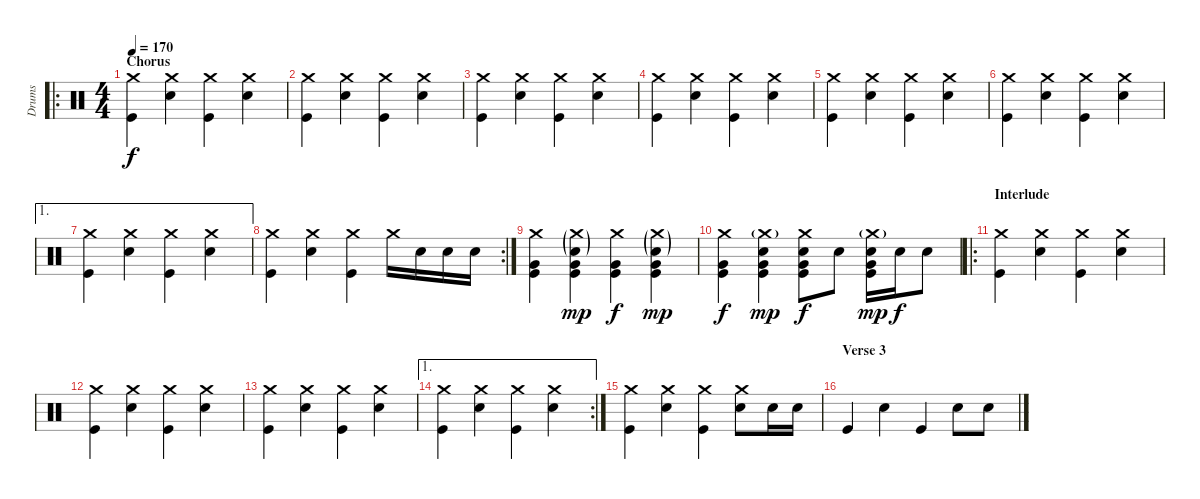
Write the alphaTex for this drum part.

\track ("Drums" "Drums") {instrument percussion}
\staff {score}
\articulation defaults
\ro
\ts (4 4)
\section ("" "Chorus")
\tempo 170
\clef neutral
\ks c
("Crash medium (hit)" "Kick (hit)").4{dy f} ("Crash medium (hit)" "Snare (hit) 2").4 ("Crash medium (hit)" "Kick (hit)").4 ("Crash medium (hit)" "Snare (hit) 2").4 |
("Crash medium (hit)" "Kick (hit)").4 ("Crash medium (hit)" "Snare (hit) 2").4 ("Crash medium (hit)" "Kick (hit)").4 ("Crash medium (hit)" "Snare (hit) 2").4 |
("Crash medium (hit)" "Kick (hit)").4 ("Crash medium (hit)" "Snare (hit) 2").4 ("Crash medium (hit)" "Kick (hit)").4 ("Crash medium (hit)" "Snare (hit) 2").4 |
("Crash medium (hit)" "Kick (hit)").4 ("Crash medium (hit)" "Snare (hit) 2").4 ("Crash medium (hit)" "Kick (hit)").4 ("Crash medium (hit)" "Snare (hit) 2").4 |
("Crash medium (hit)" "Kick (hit)").4 ("Crash medium (hit)" "Snare (hit) 2").4 ("Crash medium (hit)" "Kick (hit)").4 ("Crash medium (hit)" "Snare (hit) 2").4 |
("Crash medium (hit)" "Kick (hit)").4 ("Crash medium (hit)" "Snare (hit) 2").4 ("Crash medium (hit)" "Kick (hit)").4 ("Crash medium (hit)" "Snare (hit) 2").4 |
\ae 1
("Crash medium (hit)" "Kick (hit)").4 ("Crash medium (hit)" "Snare (hit) 2").4 ("Crash medium (hit)" "Kick (hit)").4 ("Crash medium (hit)" "Snare (hit) 2").4 |
\rc 2
("Crash medium (hit)" "Kick (hit)").4 ("Crash medium (hit)" "Snare (hit) 2").4 ("Crash medium (hit)" "Kick (hit)").4 "Crash medium (hit)".16 "Snare (hit) 2".16 "Snare (hit) 2".16 "Snare (hit) 2".16 |
("Crash medium (hit)" "Very Low Tom (hit)" "Kick (hit)").4 ("Crash medium (hit)"{g} "Very Low Tom (hit)" "Snare (hit) 2"{g} "Kick (hit)").4{dy mp} ("Crash medium (hit)" "Very Low Tom (hit)" "Kick (hit)").4{dy f} ("Crash medium (hit)"{g} "Very Low Tom (hit)" "Snare (hit) 2"{g} "Kick (hit)").4{dy mp} |
("Crash medium (hit)" "Very Low Tom (hit)" "Kick (hit)").4{dy f} ("Crash medium (hit)"{g} "Very Low Tom (hit)" "Snare (hit) 2" "Kick (hit)").4{dy mp} ("Crash medium (hit)" "Very Low Tom (hit)" "Snare (hit) 2" "Kick (hit)").8{dy f} "Snare (hit) 2".8 ("Crash medium (hit)"{g} "Very Low Tom (hit)" "Snare (hit) 2" "Kick (hit)").16{dy mp} "Snare (hit) 2".16{dy f} "Snare (hit) 2".8 |
\ro
\section ("" "Interlude")
("Crash medium (hit)" "Kick (hit)").4 ("Crash medium (hit)" "Snare (hit) 2").4 ("Crash medium (hit)" "Kick (hit)").4 ("Crash medium (hit)" "Snare (hit) 2").4 |
("Crash medium (hit)" "Kick (hit)").4 ("Crash medium (hit)" "Snare (hit) 2").4 ("Crash medium (hit)" "Kick (hit)").4 ("Crash medium (hit)" "Snare (hit) 2").4 |
("Crash medium (hit)" "Kick (hit)").4 ("Crash medium (hit)" "Snare (hit) 2").4 ("Crash medium (hit)" "Kick (hit)").4 ("Crash medium (hit)" "Snare (hit) 2").4 |
\ae 1
\rc 2
("Crash medium (hit)" "Kick (hit)").4 ("Crash medium (hit)" "Snare (hit) 2").4 ("Crash medium (hit)" "Kick (hit)").4 ("Crash medium (hit)" "Snare (hit) 2").4 |
("Crash medium (hit)" "Kick (hit)").4 ("Crash medium (hit)" "Snare (hit) 2").4 ("Crash medium (hit)" "Kick (hit)").4 ("Crash medium (hit)" "Snare (hit) 2").8 "Snare (hit) 2".16 "Snare (hit) 2".16 |
\section ("" "Verse 3")
"Kick (hit)".4 "Snare (hit) 2".4 "Kick (hit)".4 "Snare (hit) 2".8 "Hand Clap (hit)".8
